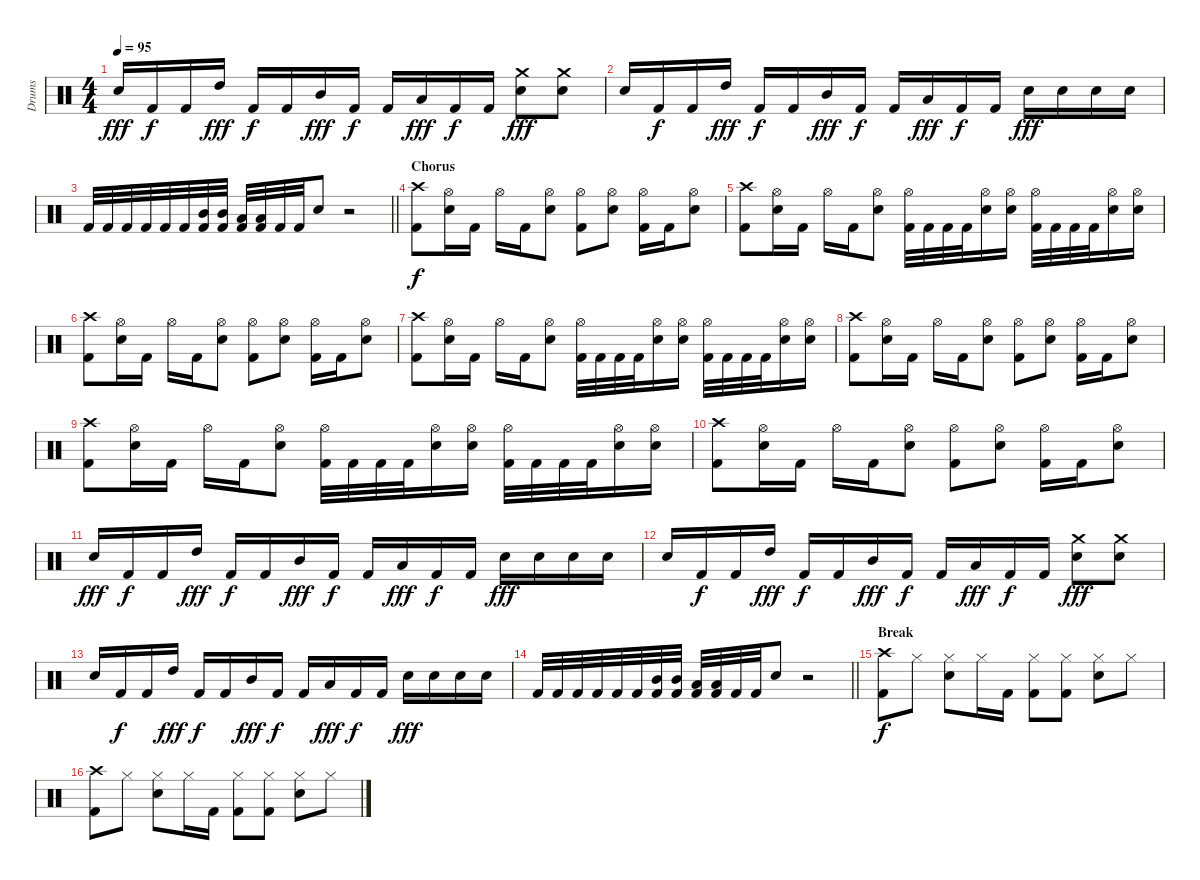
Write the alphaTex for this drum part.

\track ("Drums" "Drums") {instrument percussion}
\staff {score}
\articulation defaults
\ts (4 4)
\tempo 95
\clef neutral
\ks c "Snare (hit) 2".16{dy fff} "Kick (hit) 2".16{dy f} "Kick (hit) 2".16 "High Tom (hit)".16{dy fff} "Kick (hit) 2".16{dy f} "Kick (hit) 2".16 "Mid Tom (hit)".16{dy fff} "Kick (hit) 2".16{dy f} "Kick (hit) 2".16 "Low Tom (hit)".16{dy fff} "Kick (hit) 2".16{dy f} "Kick (hit) 2".16
("Snare (hit) 2" "Crash medium (hit)").8{dy fff} ("Snare (hit) 2" "Crash medium (hit)").8 |
"Snare (hit) 2".16 "Kick (hit) 2".16{dy f} "Kick (hit) 2".16 "High Tom (hit)".16{dy fff} "Kick (hit) 2".16{dy f} "Kick (hit) 2".16 "Mid Tom (hit)".16{dy fff} "Kick (hit) 2".16{dy f} "Kick (hit) 2".16 "Low Tom (hit)".16{dy fff} "Kick (hit) 2".16{dy f} "Kick (hit) 2".16 "Snare (hit) 2".16{dy fff} "Snare (hit) 2".16 "Snare (hit) 2".16 "Snare (hit) 2".16 |
\barLineRight lightlight "Kick (hit) 2".32 "Kick (hit) 2".32 "Kick (hit) 2".32 "Kick (hit) 2".32 "Kick (hit) 2".32 "Kick (hit) 2".32
("Mid Tom (hit)" "Kick (hit) 2").32 ("Mid Tom (hit)" "Kick (hit) 2").32 ("Low Tom (hit)" "Kick (hit) 2").32 ("Low Tom (hit)" "Kick (hit) 2").32 "Kick (hit) 2".32 "Kick (hit) 2".32 "Snare (hit) 2".8 r.2 |
\section ("" "Chorus")
("Crash high (hit)" "Kick (hit) 2").8{dy f} ("Hi-Hat (open)" "Snare (hit) 2").16 "Kick (hit) 2".16 "Hi-Hat (open)".16 "Kick (hit) 2".16 ("Hi-Hat (open)" "Snare (hit) 2").8 ("Hi-Hat (open)" "Kick (hit) 2").8 ("Hi-Hat (open)" "Snare (hit) 2").8 ("Hi-Hat (open)" "Kick (hit) 2").16 "Kick (hit) 2".16 ("Hi-Hat (open)" "Snare (hit) 2").8 |
("Crash high (hit)" "Kick (hit) 2").8 ("Hi-Hat (open)" "Snare (hit) 2").16 "Kick (hit) 2".16 "Hi-Hat (open)".16 "Kick (hit) 2".16 ("Hi-Hat (open)" "Snare (hit) 2").8 ("Hi-Hat (open)" "Kick (hit) 2").32 "Kick (hit) 2".32 "Kick (hit) 2".32 "Kick (hit) 2".32 ("Hi-Hat (open)" "Snare (hit) 2").16 ("Hi-Hat (open)" "Snare (hit) 2").16 ("Hi-Hat (open)" "Kick (hit) 2").32 "Kick (hit) 2".32 "Kick (hit) 2".32 "Kick (hit) 2".32 ("Hi-Hat (open)" "Snare (hit) 2").16 ("Hi-Hat (open)" "Snare (hit) 2").16 |
("Crash high (hit)" "Kick (hit) 2").8 ("Hi-Hat (open)" "Snare (hit) 2").16 "Kick (hit) 2".16 "Hi-Hat (open)".16 "Kick (hit) 2".16 ("Hi-Hat (open)" "Snare (hit) 2").8 ("Hi-Hat (open)" "Kick (hit) 2").8 ("Hi-Hat (open)" "Snare (hit) 2").8 ("Hi-Hat (open)" "Kick (hit) 2").16 "Kick (hit) 2".16 ("Hi-Hat (open)" "Snare (hit) 2").8 |
("Crash high (hit)" "Kick (hit) 2").8 ("Hi-Hat (open)" "Snare (hit) 2").16 "Kick (hit) 2".16 "Hi-Hat (open)".16 "Kick (hit) 2".16 ("Hi-Hat (open)" "Snare (hit) 2").8 ("Hi-Hat (open)" "Kick (hit) 2").32 "Kick (hit) 2".32 "Kick (hit) 2".32 "Kick (hit) 2".32 ("Hi-Hat (open)" "Snare (hit) 2").16 ("Hi-Hat (open)" "Snare (hit) 2").16 ("Hi-Hat (open)" "Kick (hit) 2").32 "Kick (hit) 2".32 "Kick (hit) 2".32 "Kick (hit) 2".32 ("Hi-Hat (open)" "Snare (hit) 2").16 ("Hi-Hat (open)" "Snare (hit) 2").16 |
("Crash high (hit)" "Kick (hit) 2").8 ("Hi-Hat (open)" "Snare (hit) 2").16 "Kick (hit) 2".16 "Hi-Hat (open)".16 "Kick (hit) 2".16 ("Hi-Hat (open)" "Snare (hit) 2").8 ("Hi-Hat (open)" "Kick (hit) 2").8 ("Hi-Hat (open)" "Snare (hit) 2").8 ("Hi-Hat (open)" "Kick (hit) 2").16 "Kick (hit) 2".16 ("Hi-Hat (open)" "Snare (hit) 2").8 |
("Crash high (hit)" "Kick (hit) 2").8 ("Hi-Hat (open)" "Snare (hit) 2").16 "Kick (hit) 2".16 "Hi-Hat (open)".16 "Kick (hit) 2".16 ("Hi-Hat (open)" "Snare (hit) 2").8 ("Hi-Hat (open)" "Kick (hit) 2").32 "Kick (hit) 2".32 "Kick (hit) 2".32 "Kick (hit) 2".32 ("Hi-Hat (open)" "Snare (hit) 2").16 ("Hi-Hat (open)" "Snare (hit) 2").16 ("Hi-Hat (open)" "Kick (hit) 2").32 "Kick (hit) 2".32 "Kick (hit) 2".32 "Kick (hit) 2".32 ("Hi-Hat (open)" "Snare (hit) 2").16 ("Hi-Hat (open)" "Snare (hit) 2").16 |
("Crash high (hit)" "Kick (hit) 2").8 ("Hi-Hat (open)" "Snare (hit) 2").16 "Kick (hit) 2".16 "Hi-Hat (open)".16 "Kick (hit) 2".16 ("Hi-Hat (open)" "Snare (hit) 2").8 ("Hi-Hat (open)" "Kick (hit) 2").8 ("Hi-Hat (open)" "Snare (hit) 2").8 ("Hi-Hat (open)" "Kick (hit) 2").16 "Kick (hit) 2".16 ("Hi-Hat (open)" "Snare (hit) 2").8 |
"Snare (hit) 2".16{dy fff} "Kick (hit) 2".16{dy f} "Kick (hit) 2".16 "High Tom (hit)".16{dy fff} "Kick (hit) 2".16{dy f} "Kick (hit) 2".16 "Mid Tom (hit)".16{dy fff} "Kick (hit) 2".16{dy f} "Kick (hit) 2".16 "Low Tom (hit)".16{dy fff} "Kick (hit) 2".16{dy f} "Kick (hit) 2".16 "Snare (hit) 2".16{dy fff} "Snare (hit) 2".16 "Snare (hit) 2".16 "Snare (hit) 2".16 |
"Snare (hit) 2".16 "Kick (hit) 2".16{dy f} "Kick (hit) 2".16 "High Tom (hit)".16{dy fff} "Kick (hit) 2".16{dy f} "Kick (hit) 2".16 "Mid Tom (hit)".16{dy fff} "Kick (hit) 2".16{dy f} "Kick (hit) 2".16 "Low Tom (hit)".16{dy fff} "Kick (hit) 2".16{dy f} "Kick (hit) 2".16 ("Snare (hit) 2" "Crash medium (hit)").8{dy fff} ("Snare (hit) 2" "Crash medium (hit)").8 |
"Snare (hit) 2".16 "Kick (hit) 2".16{dy f} "Kick (hit) 2".16 "High Tom (hit)".16{dy fff} "Kick (hit) 2".16{dy f} "Kick (hit) 2".16 "Mid Tom (hit)".16{dy fff} "Kick (hit) 2".16{dy f} "Kick (hit) 2".16 "Low Tom (hit)".16{dy fff} "Kick (hit) 2".16{dy f} "Kick (hit) 2".16 "Snare (hit) 2".16{dy fff} "Snare (hit) 2".16 "Snare (hit) 2".16 "Snare (hit) 2".16 |
\barLineRight lightlight "Kick (hit) 2".32 "Kick (hit) 2".32 "Kick (hit) 2".32 "Kick (hit) 2".32 "Kick (hit) 2".32 "Kick (hit) 2".32
("Mid Tom (hit)" "Kick (hit) 2").32 ("Mid Tom (hit)" "Kick (hit) 2").32 ("Low Tom (hit)" "Kick (hit) 2").32 ("Low Tom (hit)" "Kick (hit) 2").32 "Kick (hit) 2".32 "Kick (hit) 2".32 "Snare (hit) 2".8 r.2 |
\section ("" "Break")
("Crash high (hit)" "Kick (hit) 2").8{dy f} "Hi-Hat (closed)".8 ("Hi-Hat (closed)" "Snare (hit) 2").8 "Hi-Hat (closed)".16 "Kick (hit) 2".16 ("Hi-Hat (closed)" "Kick (hit) 2").8 ("Hi-Hat (closed)" "Kick (hit) 2").8 ("Hi-Hat (closed)" "Snare (hit) 2").8 "Hi-Hat (closed)".8 |
("Crash high (hit)" "Kick (hit) 2").8 "Hi-Hat (closed)".8 ("Hi-Hat (closed)" "Snare (hit) 2").8 "Hi-Hat (closed)".16 "Kick (hit) 2".16 ("Hi-Hat (closed)" "Kick (hit) 2").8 ("Hi-Hat (closed)" "Kick (hit) 2").8 ("Hi-Hat (closed)" "Snare (hit) 2").8 "Hi-Hat (closed)".8
